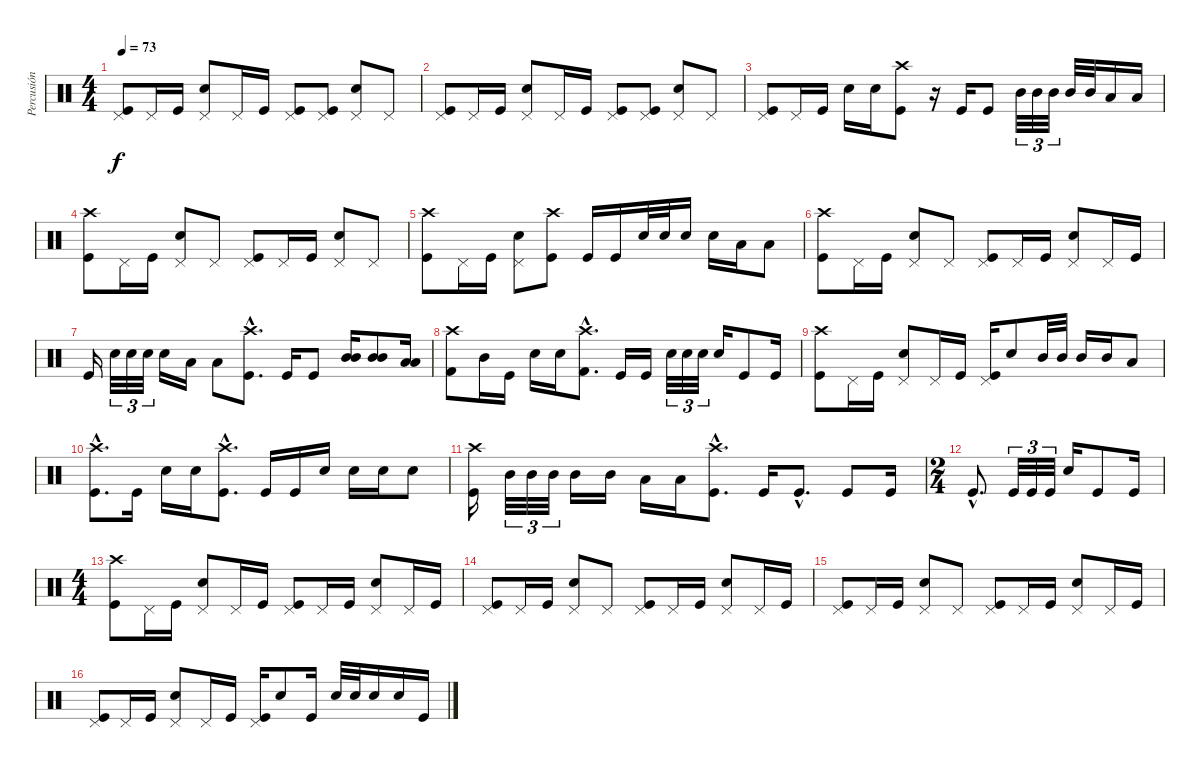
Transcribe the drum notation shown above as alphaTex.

\track ("Percusión" "Percusión") {instrument percussion}
\staff {score}
\articulation defaults
\ts (4 4)
\tempo 73
\clef neutral
\ks c
("Pedal Hi-Hat (hit)" "Kick (hit)").8{dy f} "Pedal Hi-Hat (hit)".16 "Kick (hit)".16 ("Pedal Hi-Hat (hit)" "Electric Snare (hit)").8 "Pedal Hi-Hat (hit)".16 "Kick (hit)".16 ("Pedal Hi-Hat (hit)" "Kick (hit)").8 ("Pedal Hi-Hat (hit)" "Kick (hit)").8 ("Pedal Hi-Hat (hit)" "Electric Snare (hit)").8 "Pedal Hi-Hat (hit)".8 |
("Pedal Hi-Hat (hit)" "Kick (hit)").8 "Pedal Hi-Hat (hit)".16 "Kick (hit)".16 ("Pedal Hi-Hat (hit)" "Electric Snare (hit)").8 "Pedal Hi-Hat (hit)".16 "Kick (hit)".16 ("Pedal Hi-Hat (hit)" "Kick (hit)").8 ("Pedal Hi-Hat (hit)" "Kick (hit)").8 ("Pedal Hi-Hat (hit)" "Electric Snare (hit)").8 "Pedal Hi-Hat (hit)".8 |
("Pedal Hi-Hat (hit)" "Kick (hit)").8 "Pedal Hi-Hat (hit)".16 "Kick (hit)".16 "Electric Snare (hit)".16 "Electric Snare (hit)".16 ("Crash high (hit)" "Kick (hit)").8 r.16 "Kick (hit)".16 "Kick (hit)".8 "Mid Tom (hit)".32{tu (3 2)} "Mid Tom (hit)".32{tu (3 2)} "Mid Tom (hit)".32{tu (3 2)} "Mid Tom (hit)".32 "Mid Tom (hit)".32 "Low Tom (hit)".16 "Low Tom (hit)".16 |
("Crash high (hit)" "Kick (hit)").8 "Pedal Hi-Hat (hit)".16 "Kick (hit)".16 ("Pedal Hi-Hat (hit)" "Electric Snare (hit)").8 "Pedal Hi-Hat (hit)".8 ("Pedal Hi-Hat (hit)" "Kick (hit)").8 "Pedal Hi-Hat (hit)".16 "Kick (hit)".16 ("Pedal Hi-Hat (hit)" "Electric Snare (hit)").8 "Pedal Hi-Hat (hit)".8 |
("Crash high (hit)" "Kick (hit)").8 "Pedal Hi-Hat (hit)".16 "Kick (hit)".16 ("Pedal Hi-Hat (hit)" "Electric Snare (hit)").8 ("Crash high (hit)" "Kick (hit)").8 "Kick (hit)".16 "Kick (hit)".16 "Electric Snare (hit)".32 "Electric Snare (hit)".32 "Electric Snare (hit)".16 "Electric Snare (hit)".16 "Low Tom (hit)".16 "Low Tom (hit)".8 |
("Crash high (hit)" "Kick (hit)").8 "Pedal Hi-Hat (hit)".16 "Kick (hit)".16 ("Pedal Hi-Hat (hit)" "Electric Snare (hit)").8 "Pedal Hi-Hat (hit)".8 ("Pedal Hi-Hat (hit)" "Kick (hit)").8 "Pedal Hi-Hat (hit)".16 "Kick (hit)".16 ("Pedal Hi-Hat (hit)" "Electric Snare (hit)").8 "Pedal Hi-Hat (hit)".16 "Kick (hit)".16 |
"Kick (hit)".16 "Electric Snare (hit)".32{tu (3 2)} "Electric Snare (hit)".32{tu (3 2)} "Electric Snare (hit)".32{tu (3 2)} "Electric Snare (hit)".16 "Low Tom (hit)".16 "Low Tom (hit)".8 ("Crash high (hit)"{hac} "Kick (hit)"{hac}).8{d} "Kick (hit)".16 "Kick (hit)".8 ("Mid Tom (hit)" "Mid Tom (hit)").16 ("Mid Tom (hit)" "Mid Tom (hit)").8 ("Low Tom (hit)" "Low Tom (hit)").16 |
("Crash high (hit)" "Kick (hit) 2").8 "Mid Tom (hit)".16 "Kick (hit)".16 "Electric Snare (hit)".16 "Electric Snare (hit)".16 ("Crash high (hit)"{hac} "Kick (hit) 2"{hac}).8{d} "Kick (hit)".16 "Kick (hit)".16 "Electric Snare (hit)".32{tu (3 2)} "Electric Snare (hit)".32{tu (3 2)} "Electric Snare (hit)".32{tu (3 2)} "Electric Snare (hit)".16 "Kick (hit)".8 "Kick (hit)".16 |
("Crash high (hit)" "Kick (hit)").8 "Pedal Hi-Hat (hit)".16 "Kick (hit)".16 ("Pedal Hi-Hat (hit)" "Electric Snare (hit)").8 "Pedal Hi-Hat (hit)".16 "Kick (hit)".16 ("Pedal Hi-Hat (hit)" "Kick (hit)").16 "Electric Snare (hit)".8 "Mid Tom (hit)".32 "Mid Tom (hit)".32 "Mid Tom (hit)".16 "Mid Tom (hit)".16 "Low Tom (hit)".8 |
("Crash high (hit)"{hac} "Kick (hit)"{hac}).8{d} "Kick (hit)".16 "Electric Snare (hit)".16 "Electric Snare (hit)".16 ("Crash high (hit)"{hac} "Kick (hit)"{hac}).8{d} "Kick (hit)".16 "Kick (hit)".16 "Electric Snare (hit)".16 "Electric Snare (hit)".16 "Electric Snare (hit)".16 "Electric Snare (hit)".8 |
("Crash high (hit)" "Kick (hit)").16 "Mid Tom (hit)".32{tu (3 2)} "Mid Tom (hit)".32{tu (3 2)} "Mid Tom (hit)".32{tu (3 2)} "Mid Tom (hit)".16 "Mid Tom (hit)".16 "Low Tom (hit)".16 "Low Tom (hit)".16 ("Crash high (hit)"{hac} "Kick (hit)"{hac}).8{d} "Kick (hit)".16 "Kick (hit)"{hac}.8{d} "Kick (hit)".8 "Kick (hit)".16 |
\ts (2 4)
"Kick (hit)"{hac}.8{d} "Kick (hit)".32{tu (3 2)} "Kick (hit)".32{tu (3 2)} "Kick (hit)".32{tu (3 2)} "Electric Snare (hit)".16 "Kick (hit)".8 "Kick (hit)".16 |
\ts (4 4)
("Crash high (hit)" "Kick (hit)").8 "Pedal Hi-Hat (hit)".16 "Kick (hit)".16 ("Pedal Hi-Hat (hit)" "Electric Snare (hit)").8 "Pedal Hi-Hat (hit)".16 "Kick (hit)".16 ("Pedal Hi-Hat (hit)" "Kick (hit)").8 "Pedal Hi-Hat (hit)".16 "Kick (hit)".16 ("Pedal Hi-Hat (hit)" "Electric Snare (hit)").8 "Pedal Hi-Hat (hit)".16 "Kick (hit)".16 |
("Pedal Hi-Hat (hit)" "Kick (hit)").8 "Pedal Hi-Hat (hit)".16 "Kick (hit)".16 ("Pedal Hi-Hat (hit)" "Electric Snare (hit)").8 "Pedal Hi-Hat (hit)".8 ("Pedal Hi-Hat (hit)" "Kick (hit)").8 "Pedal Hi-Hat (hit)".16 "Kick (hit)".16 ("Pedal Hi-Hat (hit)" "Electric Snare (hit)").8 "Pedal Hi-Hat (hit)".16 "Kick (hit)".16 |
("Pedal Hi-Hat (hit)" "Kick (hit)").8 "Pedal Hi-Hat (hit)".16 "Kick (hit)".16 ("Pedal Hi-Hat (hit)" "Electric Snare (hit)").8 "Pedal Hi-Hat (hit)".8 ("Pedal Hi-Hat (hit)" "Kick (hit)").8 "Pedal Hi-Hat (hit)".16 "Kick (hit)".16 ("Pedal Hi-Hat (hit)" "Electric Snare (hit)").8 "Pedal Hi-Hat (hit)".16 "Kick (hit)".16 |
("Pedal Hi-Hat (hit)" "Kick (hit)").8 "Pedal Hi-Hat (hit)".16 "Kick (hit)".16 ("Pedal Hi-Hat (hit)" "Electric Snare (hit)").8 "Pedal Hi-Hat (hit)".16 "Kick (hit)".16 ("Pedal Hi-Hat (hit)" "Kick (hit)").16 "Electric Snare (hit)".8 "Kick (hit)".16 "Electric Snare (hit)".32 "Electric Snare (hit)".32 "Electric Snare (hit)".16 "Electric Snare (hit)".16 "Kick (hit)".16
